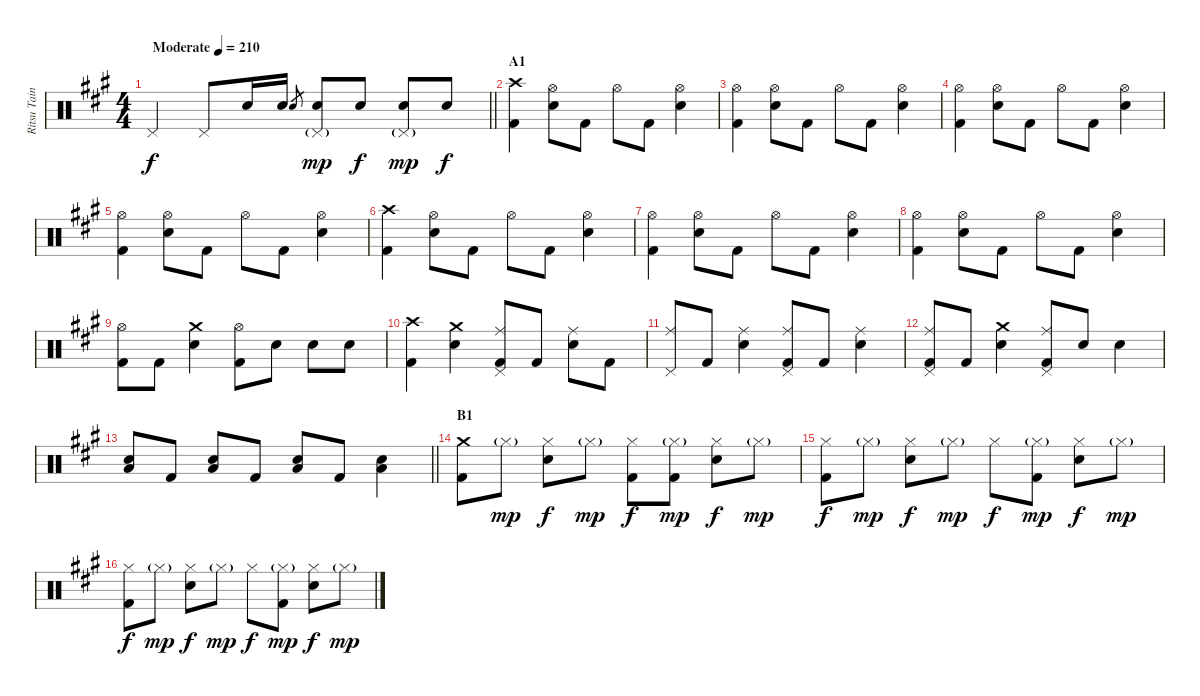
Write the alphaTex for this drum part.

\track ("Ritsu Tainaka" "Ritsu Tain") {instrument percussion}
\staff {score}
\articulation defaults
\ts (4 4)
\tempo (210 "Moderate")
\clef neutral
\barLineRight lightlight
\ks a "Pedal Hi-Hat (hit)".4{dy f} "Pedal Hi-Hat (hit)".8 "Electric Snare (hit)".16 "Electric Snare (hit)".16 "Electric Snare (hit)".8{gr}
("Pedal Hi-Hat (hit)"{g} "Electric Snare (hit)").8{dy mp} "Electric Snare (hit)".8{dy f} ("Pedal Hi-Hat (hit)"{g} "Electric Snare (hit)").8{dy mp} "Electric Snare (hit)".8{dy f} |
\section ("" "A1")
("Crash high (hit)" "Kick (hit) 2").4 ("Hi-Hat (open)" "Electric Snare (hit)").8 "Kick (hit) 2".8 "Hi-Hat (open)".8 "Kick (hit) 2".8 ("Hi-Hat (open)" "Electric Snare (hit)").4 |
("Hi-Hat (open)" "Kick (hit) 2").4 ("Hi-Hat (open)" "Electric Snare (hit)").8 "Kick (hit) 2".8 "Hi-Hat (open)".8 "Kick (hit) 2".8 ("Hi-Hat (open)" "Electric Snare (hit)").4 |
("Hi-Hat (open)" "Kick (hit) 2").4 ("Hi-Hat (open)" "Electric Snare (hit)").8 "Kick (hit) 2".8 "Hi-Hat (open)".8 "Kick (hit) 2".8 ("Hi-Hat (open)" "Electric Snare (hit)").4 |
("Hi-Hat (open)" "Kick (hit) 2").4 ("Hi-Hat (open)" "Electric Snare (hit)").8 "Kick (hit) 2".8 "Hi-Hat (open)".8 "Kick (hit) 2".8 ("Hi-Hat (open)" "Electric Snare (hit)").4 |
("Crash high (hit)" "Kick (hit) 2").4 ("Hi-Hat (open)" "Electric Snare (hit)").8 "Kick (hit) 2".8 "Hi-Hat (open)".8 "Kick (hit) 2".8 ("Hi-Hat (open)" "Electric Snare (hit)").4 |
("Hi-Hat (open)" "Kick (hit) 2").4 ("Hi-Hat (open)" "Electric Snare (hit)").8 "Kick (hit) 2".8 "Hi-Hat (open)".8 "Kick (hit) 2".8 ("Hi-Hat (open)" "Electric Snare (hit)").4 |
("Hi-Hat (open)" "Kick (hit) 2").4 ("Hi-Hat (open)" "Electric Snare (hit)").8 "Kick (hit) 2".8 "Hi-Hat (open)".8 "Kick (hit) 2".8 ("Hi-Hat (open)" "Electric Snare (hit)").4 |
("Hi-Hat (open)" "Kick (hit) 2").8 "Kick (hit) 2".8 ("Crash medium (hit)" "Electric Snare (hit)").4 ("Hi-Hat (open)" "Kick (hit) 2").8 "Electric Snare (hit)".8 "Electric Snare (hit)".8 "Electric Snare (hit)".8 |
("Crash high (hit)" "Kick (hit) 2").4 ("Crash medium (hit)" "Electric Snare (hit)").4 ("Ride (middle)" "Pedal Hi-Hat (hit)" "Kick (hit) 2").8 "Kick (hit) 2".8 ("Ride (middle)" "Electric Snare (hit)").8 "Kick (hit) 2".8 |
("Ride (middle)" "Pedal Hi-Hat (hit)").8 "Kick (hit) 2".8 ("Ride (middle)" "Electric Snare (hit)").4 ("Ride (middle)" "Pedal Hi-Hat (hit)" "Kick (hit) 2").8 "Kick (hit) 2".8 ("Ride (middle)" "Electric Snare (hit)").4 |
("Ride (middle)" "Pedal Hi-Hat (hit)" "Kick (hit) 2").8 "Kick (hit) 2".8 ("Crash medium (hit)" "Electric Snare (hit)").4 ("Ride (middle)" "Pedal Hi-Hat (hit)" "Kick (hit) 2").8 "Electric Snare (hit)".8 "Electric Snare (hit)".4 |
\barLineRight lightlight
("Electric Snare (hit)" "Low Floor Tom (hit)").8 "Kick (hit) 2".8 ("Electric Snare (hit)" "Low Floor Tom (hit)").8 "Kick (hit) 2".8 ("Electric Snare (hit)" "Low Floor Tom (hit)").8 "Kick (hit) 2".8 ("Electric Snare (hit)" "Low Floor Tom (hit)").4 |
\section ("" "B1")
("Crash medium (hit)" "Kick (hit) 2").8 "Hi-Hat (closed)"{g}.8{dy mp} ("Hi-Hat (closed)" "Electric Snare (hit)").8{dy f} "Hi-Hat (closed)"{g}.8{dy mp} ("Hi-Hat (closed)" "Kick (hit) 2").8{dy f} ("Hi-Hat (closed)"{g} "Kick (hit) 2").8{dy mp} ("Hi-Hat (closed)" "Electric Snare (hit)").8{dy f} "Hi-Hat (closed)"{g}.8{dy mp} |
("Hi-Hat (closed)" "Kick (hit) 2").8{dy f} "Hi-Hat (closed)"{g}.8{dy mp} ("Hi-Hat (closed)" "Electric Snare (hit)").8{dy f} "Hi-Hat (closed)"{g}.8{dy mp} "Hi-Hat (closed)".8{dy f} ("Hi-Hat (closed)"{g} "Kick (hit) 2").8{dy mp} ("Hi-Hat (closed)" "Electric Snare (hit)").8{dy f} "Hi-Hat (closed)"{g}.8{dy mp} |
("Hi-Hat (closed)" "Kick (hit) 2").8{dy f} "Hi-Hat (closed)"{g}.8{dy mp} ("Hi-Hat (closed)" "Electric Snare (hit)").8{dy f} "Hi-Hat (closed)"{g}.8{dy mp} "Hi-Hat (closed)".8{dy f} ("Hi-Hat (closed)"{g} "Kick (hit) 2").8{dy mp} ("Hi-Hat (closed)" "Electric Snare (hit)").8{dy f} "Hi-Hat (closed)"{g}.8{dy mp}
